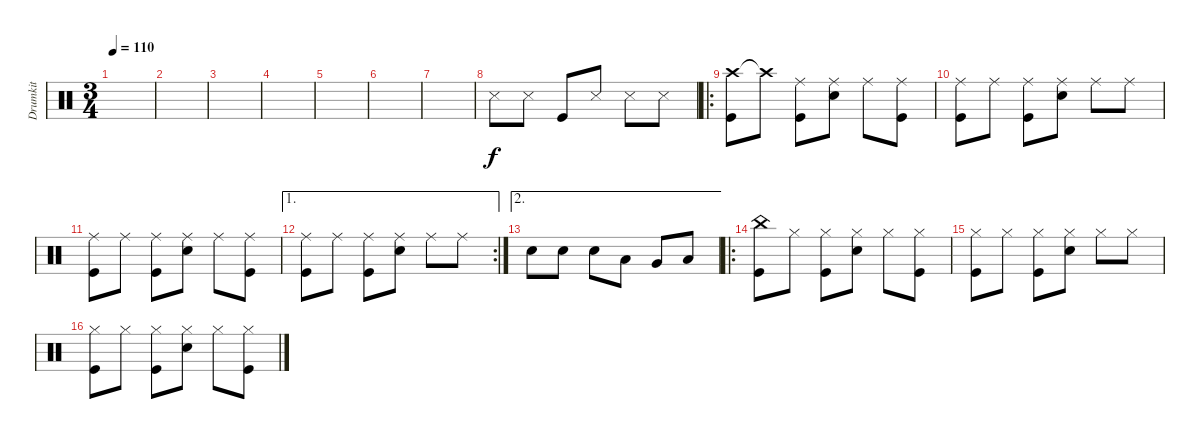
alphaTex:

\track ("Drumkit" "Drumkit") {instrument percussion}
\staff {score}
\articulation defaults
\ts (3 4)
\tempo 110
\clef neutral
\ks c
|
|
|
|
|
|
|
"Snare (side stick) 3".8 "Snare (side stick) 3".8 "Kick (hit)".8 "Snare (side stick) 3".8 "Snare (side stick) 3".8 "Snare (side stick) 3".8 |
\ro
("Crash high (hit)" "Kick (hit)").8 "Crash high (hit)"{t}.8 ("Ride (middle)" "Kick (hit)").8 ("Ride (middle)" "Snare (hit) 2").8 "Ride (middle)".8 ("Ride (middle)" "Kick (hit)").8 |
("Ride (middle)" "Kick (hit)").8 "Ride (middle)".8 ("Ride (middle)" "Kick (hit)").8 ("Ride (middle)" "Snare (hit) 2").8 "Ride (middle)".8 "Ride (middle)".8 |
("Kick (hit)" "Ride (middle)").8 "Ride (middle)".8 ("Ride (middle)" "Kick (hit)").8 ("Ride (middle)" "Snare (hit) 2").8 "Ride (middle)".8 ("Ride (middle)" "Kick (hit)").8 |
\ae 1
\rc 2
("Ride (middle)" "Kick (hit)").8 "Ride (middle)".8 ("Ride (middle)" "Kick (hit)").8 ("Ride (middle)" "Snare (hit) 2").8 "Ride (middle)".8 "Ride (middle)".8 |
\ae 2 "Snare (hit) 2".8 "Snare (hit) 2".8 "Snare (hit) 2".8 "Low Tom (hit)".8 "Very Low Tom (hit)".8 "Low Floor Tom (hit)".8
|
\ro
("Kick (hit)" "China (hit)").8 "Hi-Hat (closed)".8 ("Kick (hit)" "Hi-Hat (closed)").8 ("Snare (hit) 2" "Hi-Hat (closed)").8 "Hi-Hat (closed)".8 ("Kick (hit)" "Hi-Hat (closed)").8 |
("Kick (hit)" "Hi-Hat (closed)").8 "Hi-Hat (closed)".8 ("Kick (hit)" "Hi-Hat (closed)").8 ("Snare (hit) 2" "Hi-Hat (closed)").8 "Hi-Hat (closed)".8 "Hi-Hat (closed)".8 |
("Kick (hit)" "Hi-Hat (closed)").8 "Hi-Hat (closed)".8 ("Kick (hit)" "Hi-Hat (closed)").8 ("Snare (hit) 2" "Hi-Hat (closed)").8 "Hi-Hat (closed)".8 ("Kick (hit)" "Hi-Hat (closed)").8
